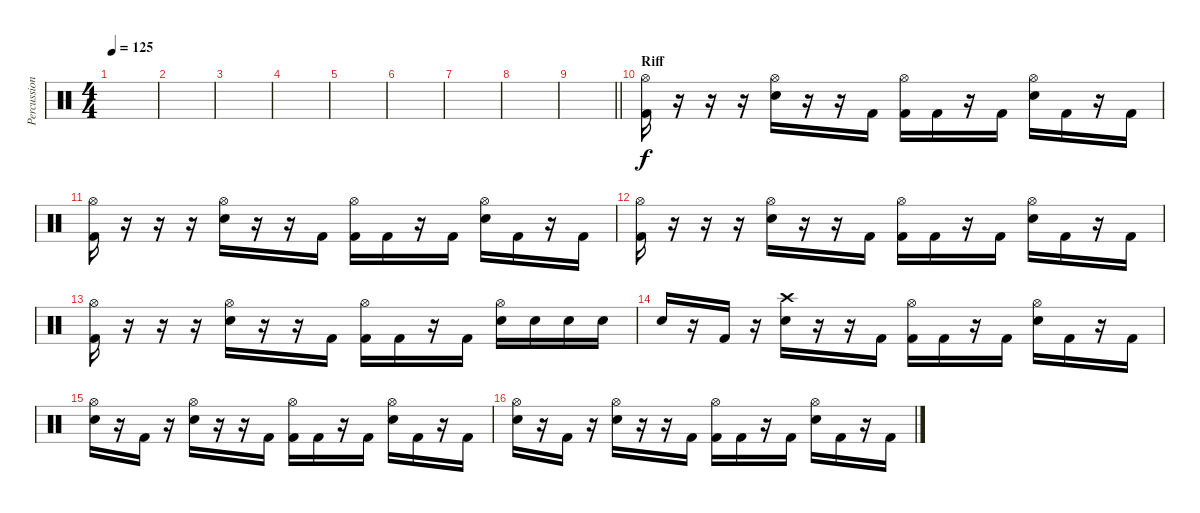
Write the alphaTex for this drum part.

\track ("Percussion" "Percussion") {instrument percussion}
\staff {score}
\articulation defaults
\ts (4 4)
\tempo 125
\clef neutral
\ks c
|
|
|
|
|
|
|
|
\barLineRight lightlight
|
\section ("" "Riff")
("Hi-Hat (open)" "Kick (hit) 2").16 r.16 r.16 r.16 ("Hi-Hat (open)" "Electric Snare (hit)").16 r.16 r.16 "Kick (hit) 2".16 ("Hi-Hat (open)" "Kick (hit) 2").16 "Kick (hit) 2".16 r.16 "Kick (hit) 2".16 ("Hi-Hat (open)" "Electric Snare (hit)").16 "Kick (hit) 2".16 r.16 "Kick (hit) 2".16 |
("Hi-Hat (open)" "Kick (hit) 2").16 r.16 r.16 r.16 ("Hi-Hat (open)" "Electric Snare (hit)").16 r.16 r.16 "Kick (hit) 2".16 ("Hi-Hat (open)" "Kick (hit) 2").16 "Kick (hit) 2".16 r.16 "Kick (hit) 2".16 ("Hi-Hat (open)" "Electric Snare (hit)").16 "Kick (hit) 2".16 r.16 "Kick (hit) 2".16 |
("Hi-Hat (open)" "Kick (hit) 2").16 r.16 r.16 r.16 ("Hi-Hat (open)" "Electric Snare (hit)").16 r.16 r.16 "Kick (hit) 2".16 ("Hi-Hat (open)" "Kick (hit) 2").16 "Kick (hit) 2".16 r.16 "Kick (hit) 2".16 ("Hi-Hat (open)" "Electric Snare (hit)").16 "Kick (hit) 2".16 r.16 "Kick (hit) 2".16 |
("Hi-Hat (open)" "Kick (hit) 2").16 r.16 r.16 r.16 ("Hi-Hat (open)" "Electric Snare (hit)").16 r.16 r.16 "Kick (hit) 2".16 ("Hi-Hat (open)" "Kick (hit) 2").16 "Kick (hit) 2".16 r.16 "Kick (hit) 2".16 ("Hi-Hat (open)" "Electric Snare (hit)").16 "Electric Snare (hit)".16 "Electric Snare (hit)".16 "Electric Snare (hit)".16 |
"Electric Snare (hit)".16 r.16 "Kick (hit) 2".16 r.16 ("Crash high (hit)" "Electric Snare (hit)").16 r.16 r.16 "Kick (hit) 2".16 ("Hi-Hat (open)" "Kick (hit) 2").16 "Kick (hit) 2".16 r.16 "Kick (hit) 2".16 ("Hi-Hat (open)" "Electric Snare (hit)").16 "Kick (hit) 2".16 r.16 "Kick (hit) 2".16 |
("Hi-Hat (open)" "Electric Snare (hit)").16 r.16 "Kick (hit) 2".16 r.16 ("Hi-Hat (open)" "Electric Snare (hit)").16 r.16 r.16 "Kick (hit) 2".16 ("Hi-Hat (open)" "Kick (hit) 2").16 "Kick (hit) 2".16 r.16 "Kick (hit) 2".16 ("Hi-Hat (open)" "Electric Snare (hit)").16 "Kick (hit) 2".16 r.16 "Kick (hit) 2".16 |
("Hi-Hat (open)" "Electric Snare (hit)").16 r.16 "Kick (hit) 2".16 r.16 ("Hi-Hat (open)" "Electric Snare (hit)").16 r.16 r.16 "Kick (hit) 2".16 ("Hi-Hat (open)" "Kick (hit) 2").16 "Kick (hit) 2".16 r.16 "Kick (hit) 2".16 ("Hi-Hat (open)" "Electric Snare (hit)").16 "Kick (hit) 2".16 r.16 "Kick (hit) 2".16
